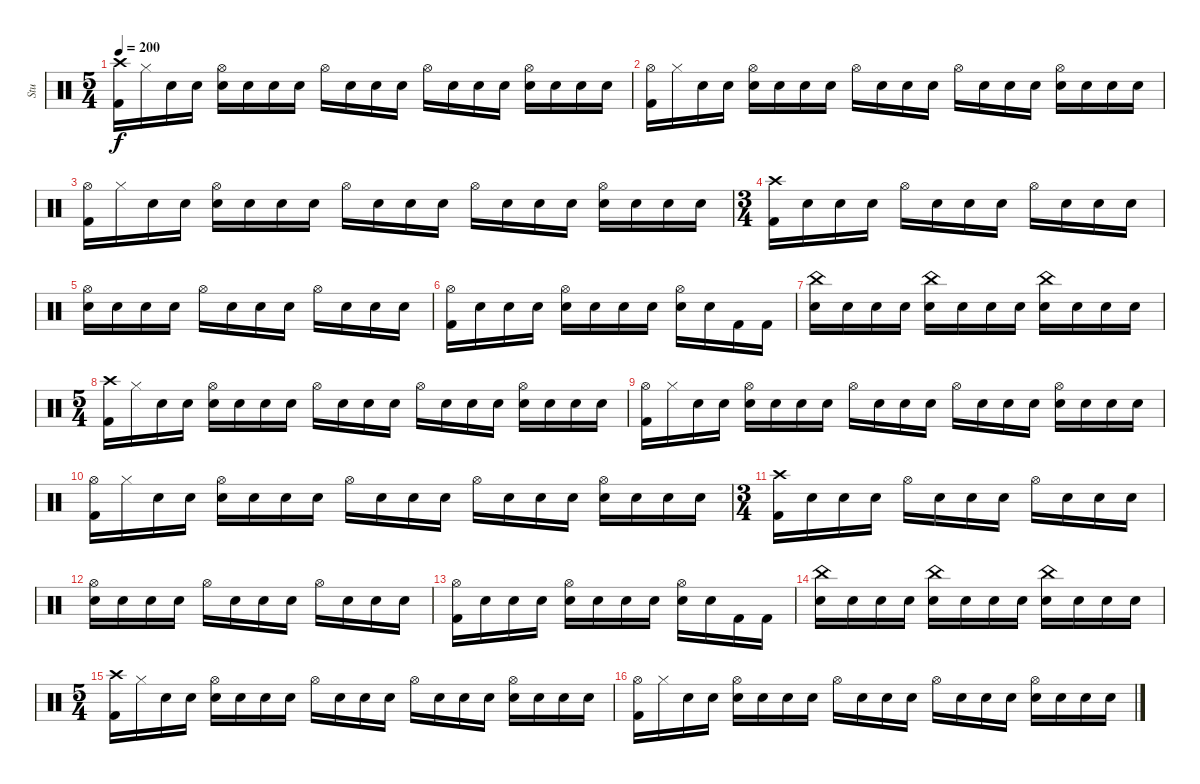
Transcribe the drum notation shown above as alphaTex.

\track ("Stu" "Stu") {instrument percussion}
\staff {score}
\articulation defaults
\ts (5 4)
\tempo 200
\clef neutral
\ks c
("Crash high (hit)" "Kick (hit) 2").16{dy f} "Hi-Hat (closed)"{x}.16 "Snare (hit)"{x}.16 "Snare (hit)"{x}.16 ("Electric Snare (hit)"{x} "Hi-Hat (open)").16 "Snare (hit)"{x}.16 "Snare (hit)"{x}.16 "Snare (hit)"{x}.16 "Hi-Hat (open)".16 "Snare (hit)"{x}.16 "Snare (hit)"{x}.16 "Snare (hit)"{x}.16 "Hi-Hat (open)".16 "Snare (hit)"{x}.16 "Snare (hit)"{x}.16 "Snare (hit)"{x}.16 ("Electric Snare (hit)" "Hi-Hat (open)").16 "Snare (hit)"{x}.16 "Snare (hit)"{x}.16 "Snare (hit)"{x}.16 |
("Hi-Hat (open)" "Kick (hit) 2").16 "Hi-Hat (closed)"{x}.16 "Snare (hit)"{x}.16 "Snare (hit)"{x}.16 ("Electric Snare (hit)"{x} "Hi-Hat (open)").16 "Snare (hit)"{x}.16 "Snare (hit)"{x}.16 "Snare (hit)"{x}.16 "Hi-Hat (open)".16 "Snare (hit)"{x}.16 "Snare (hit)"{x}.16 "Snare (hit)"{x}.16 "Hi-Hat (open)".16 "Snare (hit)"{x}.16 "Snare (hit)"{x}.16 "Snare (hit)"{x}.16 ("Electric Snare (hit)" "Hi-Hat (open)").16 "Snare (hit)"{x}.16 "Snare (hit)"{x}.16 "Snare (hit)"{x}.16 |
("Hi-Hat (open)" "Kick (hit) 2").16 "Hi-Hat (closed)"{x}.16 "Snare (hit)"{x}.16 "Snare (hit)"{x}.16 ("Electric Snare (hit)"{x} "Hi-Hat (open)").16 "Snare (hit)"{x}.16 "Snare (hit)"{x}.16 "Snare (hit)"{x}.16 "Hi-Hat (open)".16 "Snare (hit)"{x}.16 "Snare (hit)"{x}.16 "Snare (hit)"{x}.16 "Hi-Hat (open)".16 "Snare (hit)"{x}.16 "Snare (hit)"{x}.16 "Snare (hit)"{x}.16 ("Electric Snare (hit)" "Hi-Hat (open)").16 "Snare (hit)"{x}.16 "Snare (hit)"{x}.16 "Snare (hit)"{x}.16 |
\ts (3 4)
("Crash high (hit)" "Kick (hit) 2").16 "Snare (hit)"{x}.16 "Snare (hit)"{x}.16 "Snare (hit)"{x}.16 "Hi-Hat (open)".16 "Snare (hit)"{x}.16 "Snare (hit)"{x}.16 "Snare (hit)"{x}.16 "Hi-Hat (open)".16 "Snare (hit)"{x}.16 "Snare (hit)"{x}.16 "Snare (hit)"{x}.16 |
("Electric Snare (hit)" "Hi-Hat (open)").16 "Snare (hit)"{x}.16 "Snare (hit)"{x}.16 "Snare (hit)"{x}.16 "Hi-Hat (open)".16 "Snare (hit)"{x}.16 "Snare (hit)"{x}.16 "Snare (hit)"{x}.16 "Hi-Hat (open)".16 "Snare (hit)"{x}.16 "Snare (hit)"{x}.16 "Snare (hit)"{x}.16 |
("Hi-Hat (open)" "Kick (hit) 2").16 "Snare (hit)"{x}.16 "Snare (hit)"{x}.16 "Snare (hit)"{x}.16 ("Hi-Hat (open)" "Snare (hit)"{x}).16 "Snare (hit)"{x}.16 "Snare (hit)"{x}.16 "Snare (hit)"{x}.16 ("Hi-Hat (open)" "Snare (hit)"{x}).16 "Snare (hit)"{x}.16 "Kick (hit) 2".16 "Kick (hit) 2".16 |
("China (hit)" "Electric Snare (hit)").16 "Snare (hit)"{x}.16 "Snare (hit)"{x}.16 "Snare (hit)"{x}.16 ("China (hit)" "Electric Snare (hit)").16 "Snare (hit)"{x}.16 "Snare (hit)"{x}.16 "Snare (hit)"{x}.16 ("China (hit)" "Electric Snare (hit)").16 "Snare (hit)"{x}.16 "Snare (hit)"{x}.16 "Snare (hit)"{x}.16 |
\ts (5 4)
("Crash high (hit)" "Kick (hit) 2").16 "Hi-Hat (closed)"{x}.16 "Snare (hit)"{x}.16 "Snare (hit)"{x}.16 ("Electric Snare (hit)"{x} "Hi-Hat (open)").16 "Snare (hit)"{x}.16 "Snare (hit)"{x}.16 "Snare (hit)"{x}.16 "Hi-Hat (open)".16 "Snare (hit)"{x}.16 "Snare (hit)"{x}.16 "Snare (hit)"{x}.16 "Hi-Hat (open)".16 "Snare (hit)"{x}.16 "Snare (hit)"{x}.16 "Snare (hit)"{x}.16 ("Electric Snare (hit)" "Hi-Hat (open)").16 "Snare (hit)"{x}.16 "Snare (hit)"{x}.16 "Snare (hit)"{x}.16 |
("Hi-Hat (open)" "Kick (hit) 2").16 "Hi-Hat (closed)"{x}.16 "Snare (hit)"{x}.16 "Snare (hit)"{x}.16 ("Electric Snare (hit)"{x} "Hi-Hat (open)").16 "Snare (hit)"{x}.16 "Snare (hit)"{x}.16 "Snare (hit)"{x}.16 "Hi-Hat (open)".16 "Snare (hit)"{x}.16 "Snare (hit)"{x}.16 "Snare (hit)"{x}.16 "Hi-Hat (open)".16 "Snare (hit)"{x}.16 "Snare (hit)"{x}.16 "Snare (hit)"{x}.16 ("Electric Snare (hit)" "Hi-Hat (open)").16 "Snare (hit)"{x}.16 "Snare (hit)"{x}.16 "Snare (hit)"{x}.16 |
("Hi-Hat (open)" "Kick (hit) 2").16 "Hi-Hat (closed)"{x}.16 "Snare (hit)"{x}.16 "Snare (hit)"{x}.16 ("Electric Snare (hit)"{x} "Hi-Hat (open)").16 "Snare (hit)"{x}.16 "Snare (hit)"{x}.16 "Snare (hit)"{x}.16 "Hi-Hat (open)".16 "Snare (hit)"{x}.16 "Snare (hit)"{x}.16 "Snare (hit)"{x}.16 "Hi-Hat (open)".16 "Snare (hit)"{x}.16 "Snare (hit)"{x}.16 "Snare (hit)"{x}.16 ("Electric Snare (hit)" "Hi-Hat (open)").16 "Snare (hit)"{x}.16 "Snare (hit)"{x}.16 "Snare (hit)"{x}.16 |
\ts (3 4)
("Crash high (hit)" "Kick (hit) 2").16 "Snare (hit)"{x}.16 "Snare (hit)"{x}.16 "Snare (hit)"{x}.16 "Hi-Hat (open)".16 "Snare (hit)"{x}.16 "Snare (hit)"{x}.16 "Snare (hit)"{x}.16 "Hi-Hat (open)".16 "Snare (hit)"{x}.16 "Snare (hit)"{x}.16 "Snare (hit)"{x}.16 |
("Electric Snare (hit)" "Hi-Hat (open)").16 "Snare (hit)"{x}.16 "Snare (hit)"{x}.16 "Snare (hit)"{x}.16 "Hi-Hat (open)".16 "Snare (hit)"{x}.16 "Snare (hit)"{x}.16 "Snare (hit)"{x}.16 "Hi-Hat (open)".16 "Snare (hit)"{x}.16 "Snare (hit)"{x}.16 "Snare (hit)"{x}.16 |
("Hi-Hat (open)" "Kick (hit) 2").16 "Snare (hit)"{x}.16 "Snare (hit)"{x}.16 "Snare (hit)"{x}.16 ("Hi-Hat (open)" "Snare (hit)"{x}).16 "Snare (hit)"{x}.16 "Snare (hit)"{x}.16 "Snare (hit)"{x}.16 ("Hi-Hat (open)" "Snare (hit)"{x}).16 "Snare (hit)"{x}.16 "Kick (hit) 2".16 "Kick (hit) 2".16 |
("China (hit)" "Electric Snare (hit)").16 "Snare (hit)"{x}.16 "Snare (hit)"{x}.16 "Snare (hit)"{x}.16 ("China (hit)" "Electric Snare (hit)").16 "Snare (hit)"{x}.16 "Snare (hit)"{x}.16 "Snare (hit)"{x}.16 ("China (hit)" "Electric Snare (hit)").16 "Snare (hit)"{x}.16 "Snare (hit)"{x}.16 "Snare (hit)"{x}.16 |
\ts (5 4)
("Crash high (hit)" "Kick (hit) 2").16 "Hi-Hat (closed)"{x}.16 "Snare (hit)"{x}.16 "Snare (hit)"{x}.16 ("Electric Snare (hit)"{x} "Hi-Hat (open)").16 "Snare (hit)"{x}.16 "Snare (hit)"{x}.16 "Snare (hit)"{x}.16 "Hi-Hat (open)".16 "Snare (hit)"{x}.16 "Snare (hit)"{x}.16 "Snare (hit)"{x}.16 "Hi-Hat (open)".16 "Snare (hit)"{x}.16 "Snare (hit)"{x}.16 "Snare (hit)"{x}.16 ("Electric Snare (hit)" "Hi-Hat (open)").16 "Snare (hit)"{x}.16 "Snare (hit)"{x}.16 "Snare (hit)"{x}.16 |
("Hi-Hat (open)" "Kick (hit) 2").16 "Hi-Hat (closed)"{x}.16 "Snare (hit)"{x}.16 "Snare (hit)"{x}.16 ("Electric Snare (hit)"{x} "Hi-Hat (open)").16 "Snare (hit)"{x}.16 "Snare (hit)"{x}.16 "Snare (hit)"{x}.16 "Hi-Hat (open)".16 "Snare (hit)"{x}.16 "Snare (hit)"{x}.16 "Snare (hit)"{x}.16 "Hi-Hat (open)".16 "Snare (hit)"{x}.16 "Snare (hit)"{x}.16 "Snare (hit)"{x}.16 ("Electric Snare (hit)" "Hi-Hat (open)").16 "Snare (hit)"{x}.16 "Snare (hit)"{x}.16 "Snare (hit)"{x}.16
